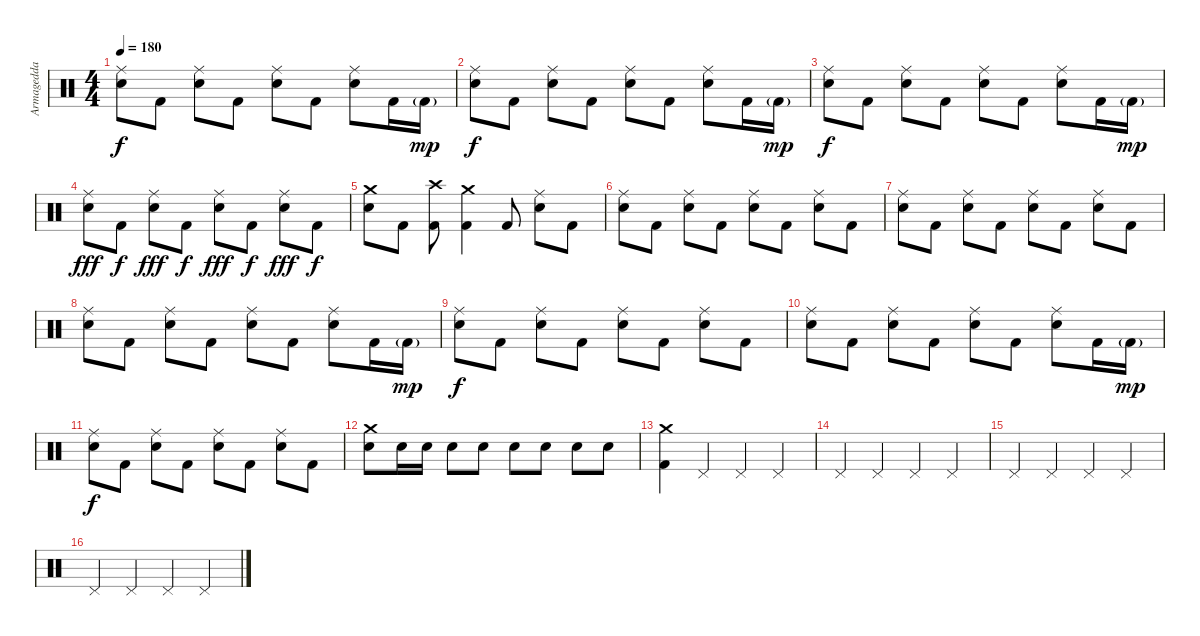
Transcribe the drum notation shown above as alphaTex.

\track ("Armagedda" "Armagedda") {instrument percussion}
\staff {score}
\articulation defaults
\ts (4 4)
\tempo 180
\clef neutral
\ks c
("Ride (middle)" "Electric Snare (hit)").8{dy f} "Kick (hit) 2".8 ("Ride (middle)" "Electric Snare (hit)").8 "Kick (hit) 2".8 ("Ride (middle)" "Electric Snare (hit)").8 "Kick (hit) 2".8 ("Ride (middle)" "Electric Snare (hit)").8 "Kick (hit) 2".16 "Kick (hit) 2"{g}.16{dy mp} |
("Ride (middle)" "Electric Snare (hit)").8{dy f} "Kick (hit) 2".8 ("Ride (middle)" "Electric Snare (hit)").8 "Kick (hit) 2".8 ("Ride (middle)" "Electric Snare (hit)").8 "Kick (hit) 2".8 ("Ride (middle)" "Electric Snare (hit)").8 "Kick (hit) 2".16 "Kick (hit) 2"{g}.16{dy mp} |
("Ride (middle)" "Electric Snare (hit)").8{dy f} "Kick (hit) 2".8 ("Ride (middle)" "Electric Snare (hit)").8 "Kick (hit) 2".8 ("Ride (middle)" "Electric Snare (hit)").8 "Kick (hit) 2".8 ("Ride (middle)" "Electric Snare (hit)").8 "Kick (hit) 2".16 "Kick (hit) 2"{g}.16{dy mp} |
("Ride (middle)" "Electric Snare (hit)").8{dy fff} "Kick (hit) 2".8{dy f} ("Ride (middle)" "Electric Snare (hit)").8{dy fff} "Kick (hit) 2".8{dy f} ("Ride (middle)" "Electric Snare (hit)").8{dy fff} "Kick (hit) 2".8{dy f} ("Ride (middle)" "Electric Snare (hit)").8{dy fff} "Kick (hit) 2".8{dy f} |
("Crash medium (hit)" "Electric Snare (hit)").8 "Kick (hit) 2".8 ("Crash high (hit)" "Kick (hit) 2").8 ("Crash medium (hit)" "Kick (hit) 2").4 "Kick (hit) 2".8 ("Ride (middle)" "Electric Snare (hit)").8 "Kick (hit) 2".8 |
("Ride (middle)" "Electric Snare (hit)").8 "Kick (hit) 2".8 ("Ride (middle)" "Electric Snare (hit)").8 "Kick (hit) 2".8 ("Ride (middle)" "Electric Snare (hit)").8 "Kick (hit) 2".8 ("Ride (middle)" "Electric Snare (hit)").8 "Kick (hit) 2".8 |
("Ride (middle)" "Electric Snare (hit)").8 "Kick (hit) 2".8 ("Ride (middle)" "Electric Snare (hit)").8 "Kick (hit) 2".8 ("Ride (middle)" "Electric Snare (hit)").8 "Kick (hit) 2".8 ("Ride (middle)" "Electric Snare (hit)").8 "Kick (hit) 2".8 |
("Ride (middle)" "Electric Snare (hit)").8 "Kick (hit) 2".8 ("Ride (middle)" "Electric Snare (hit)").8 "Kick (hit) 2".8 ("Ride (middle)" "Electric Snare (hit)").8 "Kick (hit) 2".8 ("Ride (middle)" "Electric Snare (hit)").8 "Kick (hit) 2".16 "Kick (hit) 2"{g}.16{dy mp} |
("Ride (middle)" "Electric Snare (hit)").8{dy f} "Kick (hit) 2".8 ("Ride (middle)" "Electric Snare (hit)").8 "Kick (hit) 2".8 ("Ride (middle)" "Electric Snare (hit)").8 "Kick (hit) 2".8 ("Ride (middle)" "Electric Snare (hit)").8 "Kick (hit) 2".8 |
("Ride (middle)" "Electric Snare (hit)").8 "Kick (hit) 2".8 ("Ride (middle)" "Electric Snare (hit)").8 "Kick (hit) 2".8 ("Ride (middle)" "Electric Snare (hit)").8 "Kick (hit) 2".8 ("Ride (middle)" "Electric Snare (hit)").8 "Kick (hit) 2".16 "Kick (hit) 2"{g}.16{dy mp} |
("Ride (middle)" "Electric Snare (hit)").8{dy f} "Kick (hit) 2".8 ("Ride (middle)" "Electric Snare (hit)").8 "Kick (hit) 2".8 ("Ride (middle)" "Electric Snare (hit)").8 "Kick (hit) 2".8 ("Ride (middle)" "Electric Snare (hit)").8 "Kick (hit) 2".8 |
("Crash medium (hit)" "Electric Snare (hit)").8 "Electric Snare (hit)".16 "Electric Snare (hit)".16 "Electric Snare (hit)".8 "Electric Snare (hit)".8 "Electric Snare (hit)".8 "Electric Snare (hit)".8 "Electric Snare (hit)".8 "Electric Snare (hit)".8 |
("Crash medium (hit)" "Kick (hit) 2").4 "Pedal Hi-Hat (hit)".4 "Pedal Hi-Hat (hit)".4 "Pedal Hi-Hat (hit)".4 |
"Pedal Hi-Hat (hit)".4 "Pedal Hi-Hat (hit)".4 "Pedal Hi-Hat (hit)".4 "Pedal Hi-Hat (hit)".4 |
"Pedal Hi-Hat (hit)".4 "Pedal Hi-Hat (hit)".4 "Pedal Hi-Hat (hit)".4 "Pedal Hi-Hat (hit)".4 |
"Pedal Hi-Hat (hit)".4 "Pedal Hi-Hat (hit)".4 "Pedal Hi-Hat (hit)".4 "Pedal Hi-Hat (hit)".4
